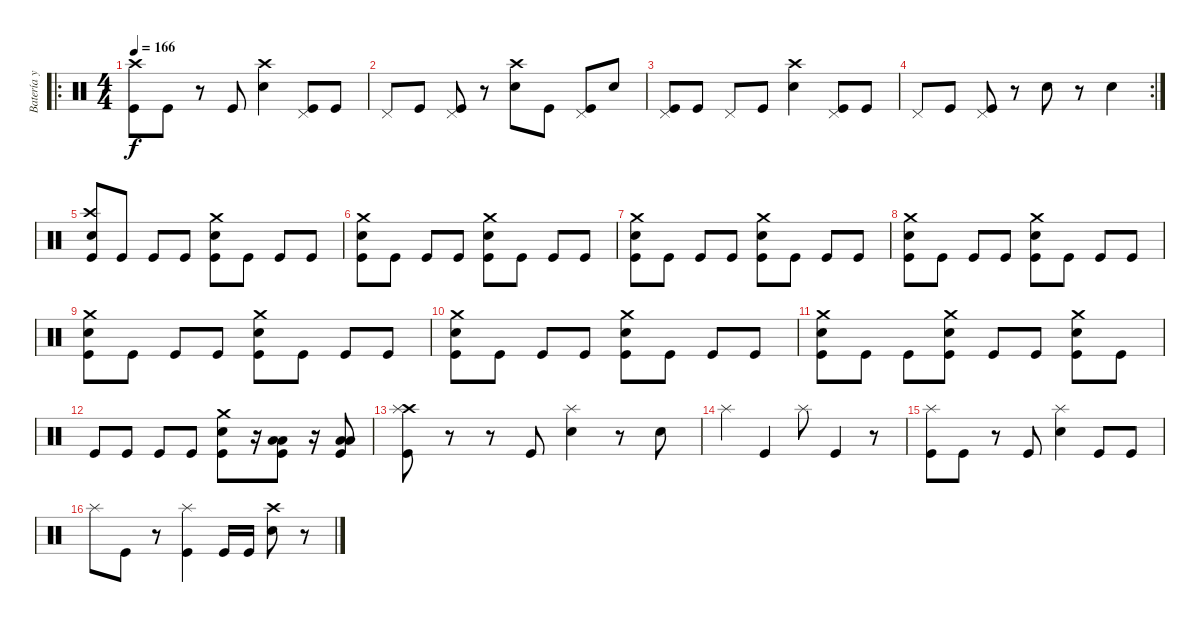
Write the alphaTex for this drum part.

\track ("Batería y letras" "Batería y ") {instrument percussion}
\staff {score}
\articulation defaults
\ro
\ts (4 4)
\tempo 166
\clef neutral
\ks c
("Kick (hit)" "Crash high (hit)").8{dy f} "Kick (hit)".8 r.8 "Kick (hit)".8 ("Electric Snare (hit)" "Crash high (hit)").4 ("Kick (hit)" "Pedal Hi-Hat (hit)").8 "Kick (hit)".8 |
"Pedal Hi-Hat (hit)".8 "Kick (hit)".8 ("Kick (hit)" "Pedal Hi-Hat (hit)").8 r.8 ("Electric Snare (hit)" "Crash high (hit)").8 "Kick (hit)".8 ("Kick (hit)" "Pedal Hi-Hat (hit)").8 "Electric Snare (hit)".8 |
("Kick (hit)" "Pedal Hi-Hat (hit)").8 "Kick (hit)".8 "Pedal Hi-Hat (hit)".8 "Kick (hit)".8 ("Electric Snare (hit)" "Crash high (hit)").4 ("Kick (hit)" "Pedal Hi-Hat (hit)").8 "Kick (hit)".8 |
\rc 2 "Pedal Hi-Hat (hit)".8 "Kick (hit)".8
("Kick (hit)" "Pedal Hi-Hat (hit)").8 r.8 "Electric Snare (hit)".8 r.8 "Electric Snare (hit)".4 |
("Electric Snare (hit)" "Kick (hit)" "Crash high (hit)").8 "Kick (hit)".8 "Kick (hit)".8 "Kick (hit)".8 ("Electric Snare (hit)" "Kick (hit)" "Crash medium (hit)").8 "Kick (hit)".8 "Kick (hit)".8 "Kick (hit)".8 |
("Electric Snare (hit)" "Kick (hit)" "Crash medium (hit)").8 "Kick (hit)".8 "Kick (hit)".8 "Kick (hit)".8 ("Electric Snare (hit)" "Kick (hit)" "Crash medium (hit)").8 "Kick (hit)".8 "Kick (hit)".8 "Kick (hit)".8 |
("Electric Snare (hit)" "Kick (hit)" "Crash medium (hit)").8 "Kick (hit)".8 "Kick (hit)".8 "Kick (hit)".8 ("Electric Snare (hit)" "Kick (hit)" "Crash medium (hit)").8 "Kick (hit)".8 "Kick (hit)".8 "Kick (hit)".8 |
("Electric Snare (hit)" "Kick (hit)" "Crash medium (hit)").8 "Kick (hit)".8 "Kick (hit)".8 "Kick (hit)".8 ("Electric Snare (hit)" "Kick (hit)" "Crash medium (hit)").8 "Kick (hit)".8 "Kick (hit)".8 "Kick (hit)".8 |
("Electric Snare (hit)" "Kick (hit)" "Crash medium (hit)").8 "Kick (hit)".8 "Kick (hit)".8 "Kick (hit)".8 ("Electric Snare (hit)" "Kick (hit)" "Crash medium (hit)").8 "Kick (hit)".8 "Kick (hit)".8 "Kick (hit)".8 |
("Electric Snare (hit)" "Kick (hit)" "Crash medium (hit)").8 "Kick (hit)".8 "Kick (hit)".8 "Kick (hit)".8 ("Electric Snare (hit)" "Kick (hit)" "Crash medium (hit)").8 "Kick (hit)".8 "Kick (hit)".8 "Kick (hit)".8 |
("Electric Snare (hit)" "Kick (hit)" "Crash medium (hit)").8 "Kick (hit)".8 "Kick (hit)".8 ("Electric Snare (hit)" "Kick (hit)" "Crash medium (hit)").8 "Kick (hit)".8 "Kick (hit)".8 ("Electric Snare (hit)" "Kick (hit)" "Crash medium (hit)").8 "Kick (hit)".8 |
"Kick (hit)".8 "Kick (hit)".8 "Kick (hit)".8 "Kick (hit)".8 ("Electric Snare (hit)" "Kick (hit)" "Crash medium (hit)").8 r.16 ("Low Floor Tom (hit)" "Kick (hit)" "Low Floor Tom (hit)").8 r.16 ("Low Floor Tom (hit)" "Kick (hit)" "Low Floor Tom (hit)").8 |
("Kick (hit)" "Crash high (hit)" "Splash (hit)").8 r.8 r.8 "Kick (hit)".8 ("Electric Snare (hit)" "Splash (hit)").4 r.8 "Electric Snare (hit)".8 |
"Splash (hit)".4 "Kick (hit)".4 "Splash (hit)".8 "Kick (hit)".4 r.8 |
("Kick (hit)" "Splash (hit)").8 "Kick (hit)".8 r.8 "Kick (hit)".8 ("Electric Snare (hit)" "Splash (hit)").4 "Kick (hit)".8 "Kick (hit)".8 |
"Splash (hit)".8 "Kick (hit)".8 r.8 ("Kick (hit)" "Splash (hit)").4 "Kick (hit)".16 "Kick (hit)".16 ("Electric Snare (hit)" "Crash high (hit)").8 r.8
